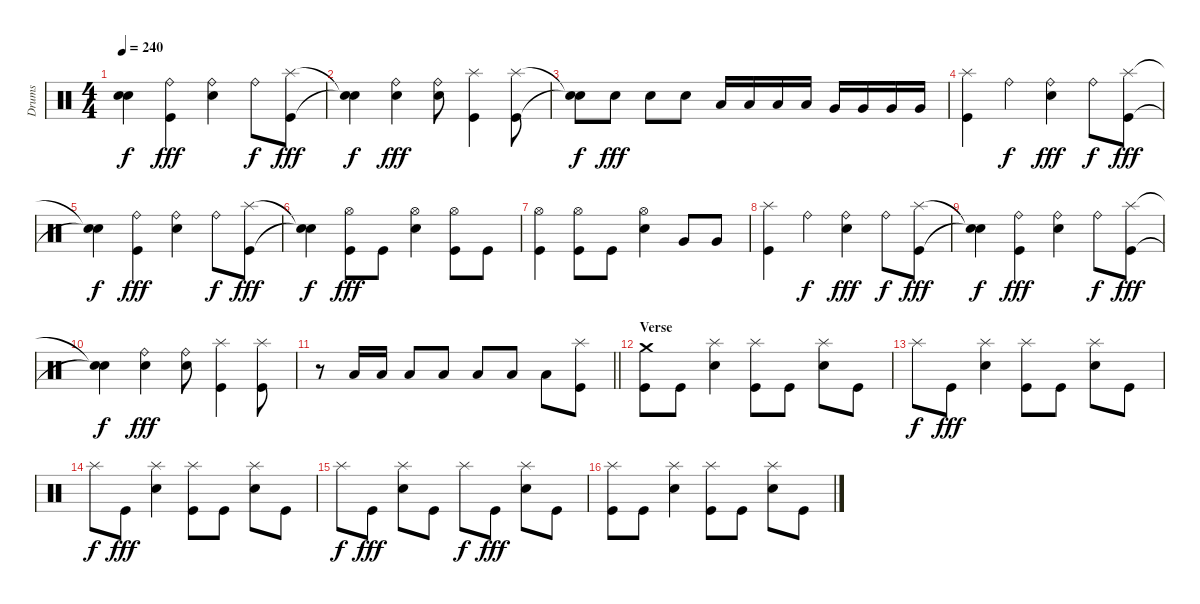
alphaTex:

\track ("Drums" "Drums") {instrument percussion}
\staff {score}
\articulation defaults
\ts (4 4)
\tempo 240
\clef neutral
\ks c
("Snare (hit)"{t} "Snare (hit)"{t}).4{dy f} ("Kick (hit)" "Ride (bell)").4{dy fff} ("Electric Snare (hit)" "Ride (bell)").4 "Ride (bell)".8{dy f} ("Kick (hit)" "Splash (hit)").8{dy fff} |
("Snare (hit)"{t} "Snare (hit)"{t}).4{dy f} ("Electric Snare (hit)" "Ride (bell)").4{dy fff} ("Electric Snare (hit)" "Ride (bell)").8 ("Kick (hit)" "Splash (hit)").4 ("Kick (hit)" "Splash (hit)").8 |
("Snare (hit)"{t} "Snare (hit)"{t}).8{dy f} "Electric Snare (hit)".8{dy fff} "Electric Snare (hit)".8 "Electric Snare (hit)".8 "Low Tom (hit)".16 "Low Tom (hit)".16 "Low Tom (hit)".16 "Low Tom (hit)".16 "Very Low Tom (hit)".16 "Very Low Tom (hit)".16 "Very Low Tom (hit)".16 "Very Low Tom (hit)".16 |
("Kick (hit)" "Splash (hit)").4 "Ride (bell)".4{dy f} ("Electric Snare (hit)" "Ride (bell)").4{dy fff} "Ride (bell)".8{dy f} ("Kick (hit)" "Splash (hit)").8{dy fff} |
("Snare (hit)"{t} "Snare (hit)"{t}).4{dy f} ("Kick (hit)" "Ride (bell)").4{dy fff} ("Electric Snare (hit)" "Ride (bell)").4 "Ride (bell)".8{dy f} ("Kick (hit)" "Splash (hit)").8{dy fff} |
("Snare (hit)"{t} "Snare (hit)"{t}).4{dy f} ("Kick (hit)" "Hi-Hat (open)").8{dy fff} "Kick (hit)".8 ("Electric Snare (hit)" "Hi-Hat (open)").4 ("Kick (hit)" "Hi-Hat (open)").8 "Kick (hit)".8 |
("Kick (hit)" "Hi-Hat (open)").4 ("Kick (hit)" "Hi-Hat (open)").8 "Kick (hit)".8 ("Electric Snare (hit)" "Hi-Hat (open)").4 "Very Low Tom (hit)".8 "Very Low Tom (hit)".8 |
("Kick (hit)" "Splash (hit)").4 "Ride (bell)".4{dy f} ("Electric Snare (hit)" "Ride (bell)").4{dy fff} "Ride (bell)".8{dy f} ("Kick (hit)" "Splash (hit)").8{dy fff} |
("Snare (hit)"{t} "Snare (hit)"{t}).4{dy f} ("Kick (hit)" "Ride (bell)").4{dy fff} ("Electric Snare (hit)" "Ride (bell)").4 "Ride (bell)".8{dy f} ("Kick (hit)" "Splash (hit)").8{dy fff} |
("Snare (hit)"{t} "Snare (hit)"{t}).4{dy f} ("Electric Snare (hit)" "Ride (bell)").4{dy fff} ("Electric Snare (hit)" "Ride (bell)").8 ("Kick (hit)" "Splash (hit)").4 ("Kick (hit)" "Splash (hit)").8 |
\barLineRight lightlight
r.8 "Low Tom (hit)".16 "Low Tom (hit)".16 "Low Tom (hit)".8 "Low Tom (hit)".8 "Low Tom (hit)".8 "Low Floor Tom (hit)".8 "Low Floor Tom (hit)".8 ("Kick (hit)" "Splash (hit)").8 |
\section ("" "Verse")
("Kick (hit)" "Crash medium (hit)").8 "Kick (hit)".8 ("Electric Snare (hit)" "Splash (hit)").4 ("Kick (hit)" "Splash (hit)").8 "Kick (hit)".8 ("Electric Snare (hit)" "Splash (hit)").8 "Kick (hit)".8 |
"Splash (hit)".8{dy f} "Kick (hit)".8{dy fff} ("Electric Snare (hit)" "Splash (hit)").4 ("Kick (hit)" "Splash (hit)").8 "Kick (hit)".8 ("Electric Snare (hit)" "Splash (hit)").8 "Kick (hit)".8 |
"Splash (hit)".8{dy f} "Kick (hit)".8{dy fff} ("Electric Snare (hit)" "Splash (hit)").4 ("Kick (hit)" "Splash (hit)").8 "Kick (hit)".8 ("Electric Snare (hit)" "Splash (hit)").8 "Kick (hit)".8 |
"Splash (hit)".8{dy f} "Kick (hit)".8{dy fff} ("Electric Snare (hit)" "Splash (hit)").8 "Kick (hit)".8 "Splash (hit)".8{dy f} "Kick (hit)".8{dy fff} ("Electric Snare (hit)" "Splash (hit)").8 "Kick (hit)".8 |
("Kick (hit)" "Splash (hit)").8 "Kick (hit)".8 ("Electric Snare (hit)" "Splash (hit)").4 ("Kick (hit)" "Splash (hit)").8 "Kick (hit)".8 ("Electric Snare (hit)" "Splash (hit)").8 "Kick (hit)".8
